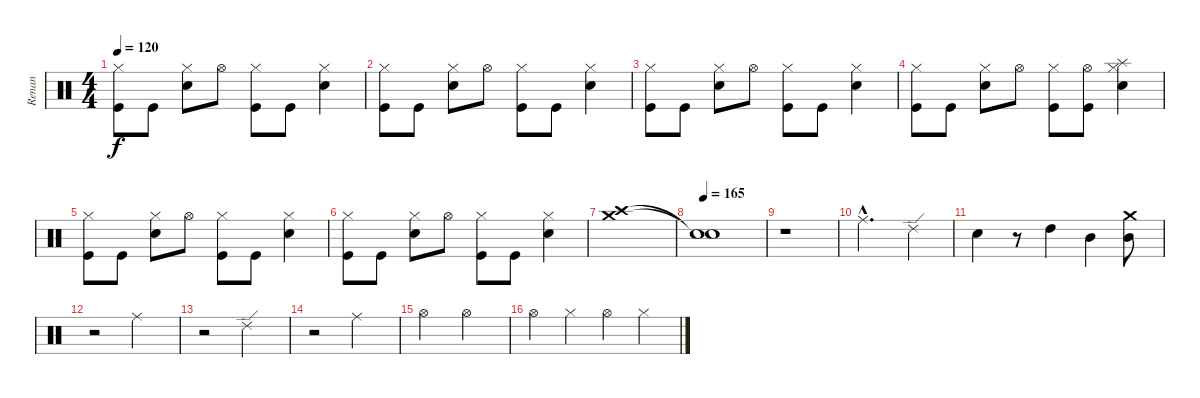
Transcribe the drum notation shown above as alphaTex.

\track ("Renan" "Renan") {instrument percussion}
\staff {score}
\articulation defaults
\ts (4 4)
\tempo 120
\clef neutral
\ks c
("Hi-Hat (closed)" "Kick (hit)").8{dy f} "Kick (hit)".8 ("Hi-Hat (closed)" "Snare (hit) 2").8 "Hi-Hat (open)".8 ("Hi-Hat (closed)" "Kick (hit)").8 "Kick (hit)".8 ("Hi-Hat (closed)" "Snare (hit) 2").4 |
("Hi-Hat (closed)" "Kick (hit)").8 "Kick (hit)".8 ("Hi-Hat (closed)" "Snare (hit) 2").8 "Hi-Hat (open)".8 ("Hi-Hat (closed)" "Kick (hit)").8 "Kick (hit)".8 ("Hi-Hat (closed)" "Snare (hit) 2").4 |
("Hi-Hat (closed)" "Kick (hit)").8 "Kick (hit)".8 ("Hi-Hat (closed)" "Snare (hit) 2").8 "Hi-Hat (open)".8 ("Hi-Hat (closed)" "Kick (hit)").8 "Kick (hit)".8 ("Hi-Hat (closed)" "Snare (hit) 2").4 |
("Hi-Hat (closed)" "Kick (hit)").8 "Kick (hit)".8 ("Hi-Hat (closed)" "Snare (hit) 2").8 "Hi-Hat (open)".8 ("Hi-Hat (closed)" "Kick (hit)").8 ("Hi-Hat (open)" "Kick (hit)").8 ("Hi-Hat (closed)" "Splash (hit)" "Snare (hit) 2").4 |
("Hi-Hat (closed)" "Kick (hit)").8 "Kick (hit)".8 ("Hi-Hat (closed)" "Snare (hit) 2").8 "Hi-Hat (open)".8 ("Hi-Hat (closed)" "Kick (hit)").8 "Kick (hit)".8 ("Hi-Hat (closed)" "Snare (hit) 2").4 |
("Hi-Hat (closed)" "Kick (hit)").8 "Kick (hit)".8 ("Hi-Hat (closed)" "Snare (hit) 2").8 "Hi-Hat (open)".8 ("Hi-Hat (closed)" "Kick (hit)").8 "Kick (hit)".8 ("Hi-Hat (closed)" "Snare (hit) 2").4 |
("Crash high (hit)" "Crash medium (hit)").1 |
\tempo 165
("Snare (hit)"{t} "Snare (hit)"{t}).1 |
r.1 |
"Ride (middle)"{hac}.2{d} "Ride (edge) 2".4 |
"Electric Snare (hit)".4 r.8 "High Tom (hit)".4 "Mid Tom (hit)".4 ("Crash medium (hit)" "Mid Tom (hit)").8 |
r.2 "Ride (middle)".2 |
r.2 "Ride (edge) 2".2 |
r.2 "Ride (middle)".2 |
"Hi-Hat (open)".2 "Hi-Hat (open)".2 |
"Hi-Hat (open)".4 "Hi-Hat (closed)".4 "Hi-Hat (open)".4 "Hi-Hat (closed)".4
